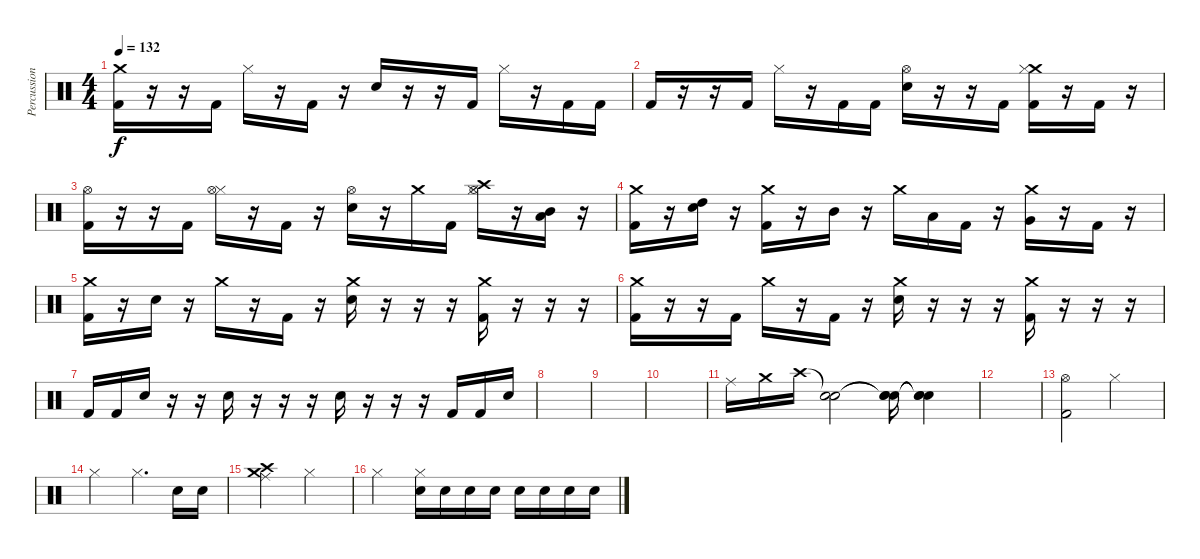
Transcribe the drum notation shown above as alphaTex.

\track ("Percussion" "Percussion") {instrument percussion}
\staff {score}
\articulation defaults
\ts (4 4)
\tempo 132
\clef neutral
\ks c
("Kick (hit) 2" "Crash medium (hit)").16{dy f} r.16 r.16 "Kick (hit) 2".16 "Hi-Hat (closed)".16 r.16 "Kick (hit) 2".16 r.16 "Snare (hit) 2".16 r.16 r.16 "Kick (hit) 2".16 "Hi-Hat (closed)".16 r.16 "Kick (hit) 2".16 "Kick (hit) 2".16 |
"Kick (hit) 2".16 r.16 r.16 "Kick (hit) 2".16 "Hi-Hat (closed)".16 r.16 "Kick (hit) 2".16 "Kick (hit) 2".16 ("Snare (hit) 2" "Hi-Hat (open)").16 r.16 r.16 "Kick (hit) 2".16 ("Kick (hit) 2" "Crash medium (hit)" "Hi-Hat (closed)").16 r.16 "Kick (hit) 2".16 r.16 |
("Kick (hit) 2" "Hi-Hat (open)").16 r.16 r.16 "Kick (hit) 2".16 ("Hi-Hat (closed)" "Hi-Hat (open)").16 r.16 "Kick (hit) 2".16 r.16 ("Snare (hit) 2" "Hi-Hat (open)").16 r.16 "Crash medium (hit)".16 "Kick (hit) 2".16 ("Crash high (hit)" "Hi-Hat (closed)" "Hi-Hat (open)").16 r.16 ("Mid Tom (hit)" "Low Tom (hit)").16 r.16 |
("Kick (hit) 2" "Crash medium (hit)").16 r.16 ("High Tom (hit)" "Snare (hit) 2").16 r.16 ("Kick (hit) 2" "Crash medium (hit)").16 r.16 "Mid Tom (hit)".16 r.16 "Crash medium (hit)".16 "Low Tom (hit)".16 "Kick (hit) 2".16 r.16 ("Very Low Tom (hit)" "Crash medium (hit)").16 r.16 "Kick (hit) 2".16 r.16 |
("Kick (hit) 2" "Crash medium (hit)").16 r.16 "Snare (hit) 2".16 r.16 "Crash medium (hit)".16 r.16 "Kick (hit) 2".16 r.16 ("Snare (hit) 2" "Crash medium (hit)").16 r.16 r.16 r.16 ("Kick (hit) 2" "Crash medium (hit)").16 r.16 r.16 r.16 |
("Kick (hit) 2" "Crash medium (hit)").16 r.16 r.16 "Kick (hit) 2".16 "Crash medium (hit)".16 r.16 "Kick (hit) 2".16 r.16 ("Snare (hit) 2" "Crash medium (hit)").16 r.16 r.16 r.16 ("Kick (hit) 2" "Crash medium (hit)").16 r.16 r.16 r.16 |
"Kick (hit) 2".16 "Kick (hit) 2".16 "Snare (hit) 2".16 r.16 r.16 "Snare (hit) 2".16 r.16 r.16 r.16 "Snare (hit) 2".16 r.16 r.16 r.16 "Kick (hit) 2".16 "Kick (hit) 2".16 "Snare (hit) 2".16 |
|
|
|
"Ride (middle)".16 "Crash medium (hit)".16 "Crash high (hit)".16 ("Snare (hit)"{t} "Snare (hit)").2 ("Snare (hit)"{t} "Snare (hit)"{t} "Snare (hit)").16 ("Snare (hit)"{t} "Snare (hit)"{t} "Snare (hit)"{t}).4 |
|
("Kick (hit) 2" "Hi-Hat (open)").2 "Hi-Hat (closed)".2 |
"Hi-Hat (closed)".2 "Hi-Hat (closed)".4{d} "Snare (hit) 2".16 "Snare (hit) 2".16 |
("Crash medium (hit)" "Ride (middle)" "Crash high (hit)").2 "Hi-Hat (closed)".2 |
"Hi-Hat (closed)".2 ("Snare (hit) 2" "Hi-Hat (closed)").16 "Snare (hit) 2".16 "Snare (hit) 2".16 "Snare (hit) 2".16 "Snare (hit) 2".16 "Snare (hit) 2".16 "Snare (hit) 2".16 "Snare (hit) 2".16
